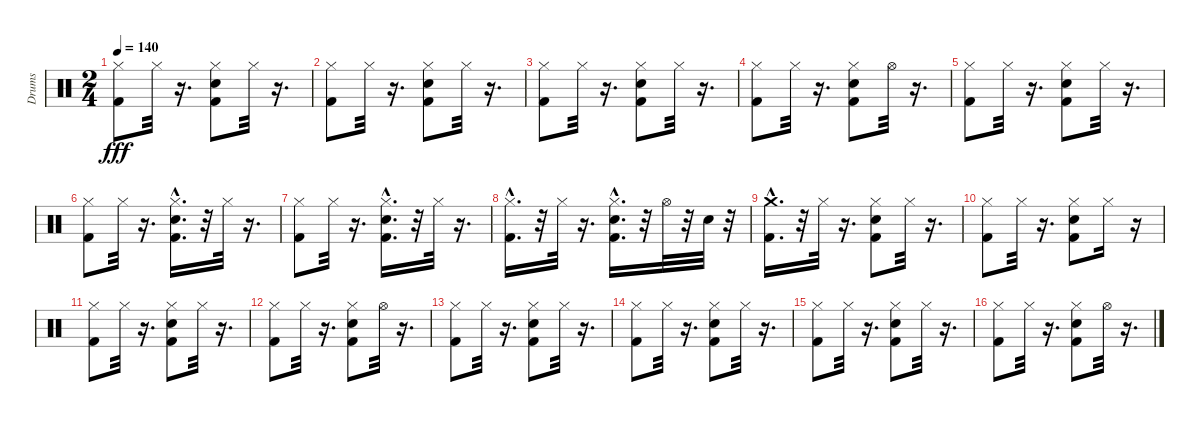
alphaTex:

\track ("Drums" "Drums") {instrument percussion}
\staff {score}
\articulation defaults
\ts (2 4)
\tempo 140
\clef neutral
\ks c
("Kick (hit) 2" "Hi-Hat (closed)").8{dy fff} "Hi-Hat (closed)".32 r.16{d} ("Snare (hit) 2" "Kick (hit) 2" "Hi-Hat (closed)").8 "Hi-Hat (closed)".32 r.16{d} |
("Kick (hit) 2" "Hi-Hat (closed)").8 "Hi-Hat (closed)".32 r.16{d} ("Snare (hit) 2" "Kick (hit) 2" "Hi-Hat (closed)").8 "Hi-Hat (closed)".32 r.16{d} |
("Kick (hit) 2" "Hi-Hat (closed)").8 "Hi-Hat (closed)".32 r.16{d} ("Snare (hit) 2" "Kick (hit) 2" "Hi-Hat (closed)").8 "Hi-Hat (closed)".32 r.16{d} |
("Kick (hit) 2" "Hi-Hat (closed)").8 "Hi-Hat (closed)".32 r.16{d} ("Snare (hit) 2" "Kick (hit) 2" "Hi-Hat (closed)").8 "Hi-Hat (open)".32 r.16{d} |
("Kick (hit) 2" "Hi-Hat (closed)").8 "Hi-Hat (closed)".32 r.16{d} ("Snare (hit) 2" "Kick (hit) 2" "Hi-Hat (closed)").8 "Hi-Hat (closed)".32 r.16{d} |
("Kick (hit) 2" "Hi-Hat (closed)").8 "Hi-Hat (closed)".32 r.16{d} ("Snare (hit) 2"{hac} "Kick (hit) 2"{hac} "Hi-Hat (closed)").16{d} r.32 "Hi-Hat (closed)".32 r.16{d} |
("Kick (hit) 2" "Hi-Hat (closed)").8 "Hi-Hat (closed)".32 r.16{d} ("Snare (hit) 2"{hac} "Kick (hit) 2"{hac} "Hi-Hat (closed)").16{d} r.32 "Hi-Hat (closed)".32 r.16{d} |
("Kick (hit) 2"{hac} "Hi-Hat (closed)").16{d} r.32 "Hi-Hat (closed)".32 r.16{d} ("Snare (hit) 2"{hac} "Kick (hit) 2"{hac} "Hi-Hat (closed)").16{d} r.32 "Hi-Hat (open)".32 r.32 "Snare (hit) 2".32 r.32 |
("Kick (hit) 2"{hac} "Crash medium (hit)").16{d} r.32 "Hi-Hat (closed)".32 r.16{d} ("Snare (hit) 2" "Hi-Hat (closed)" "Kick (hit) 2").8 "Hi-Hat (closed)".32 r.16{d} |
("Kick (hit) 2" "Hi-Hat (closed)").8 "Hi-Hat (closed)".32 r.16{d} ("Snare (hit) 2" "Kick (hit) 2" "Hi-Hat (closed)").8 "Hi-Hat (closed)".16 r.16 |
("Kick (hit) 2" "Hi-Hat (closed)").8 "Hi-Hat (closed)".32 r.16{d} ("Snare (hit) 2" "Kick (hit) 2" "Hi-Hat (closed)").8 "Hi-Hat (closed)".32 r.16{d} |
("Kick (hit) 2" "Hi-Hat (closed)").8 "Hi-Hat (closed)".32 r.16{d} ("Hi-Hat (closed)" "Kick (hit) 2" "Snare (hit) 2").8 "Hi-Hat (open)".32 r.16{d} |
("Kick (hit) 2" "Hi-Hat (closed)").8 "Hi-Hat (closed)".32 r.16{d} ("Snare (hit) 2" "Kick (hit) 2" "Hi-Hat (closed)").8 "Hi-Hat (closed)".32 r.16{d} |
("Kick (hit) 2" "Hi-Hat (closed)").8 "Hi-Hat (closed)".32 r.16{d} ("Snare (hit) 2" "Kick (hit) 2" "Hi-Hat (closed)").8 "Hi-Hat (closed)".32 r.16{d} |
("Kick (hit) 2" "Hi-Hat (closed)").8 "Hi-Hat (closed)".32 r.16{d} ("Snare (hit) 2" "Kick (hit) 2" "Hi-Hat (closed)").8 "Hi-Hat (closed)".32 r.16{d} |
("Kick (hit) 2" "Hi-Hat (closed)").8 "Hi-Hat (closed)".32 r.16{d} ("Kick (hit) 2" "Snare (hit) 2" "Hi-Hat (closed)").8 "Hi-Hat (open)".32 r.16{d}
